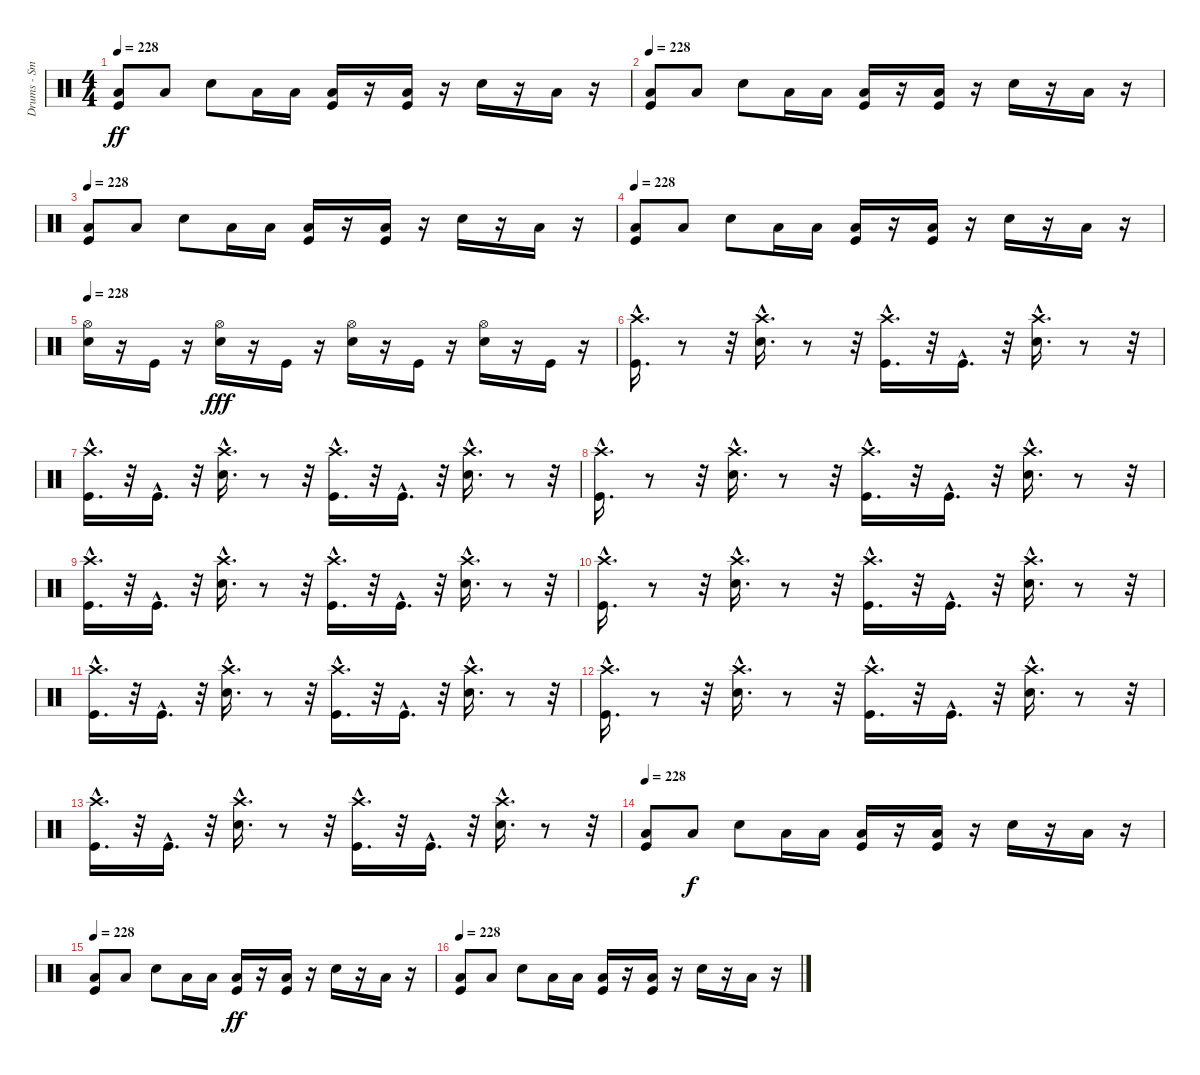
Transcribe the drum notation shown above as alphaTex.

\track ("Drums - Smelly" "Drums - Sm") {instrument percussion}
\staff {score}
\articulation defaults
\ts (4 4)
\tempo 228
\clef neutral
\ks c
("Kick (hit)" "Low Floor Tom (hit)").8{dy ff} "Low Floor Tom (hit)".8 "Electric Snare (hit)".8 "Low Tom (hit)".16 "Low Tom (hit)".16 ("Kick (hit)" "Low Floor Tom (hit)").16 r.16 ("Low Floor Tom (hit)" "Kick (hit)").16 r.16 "Electric Snare (hit)".16 r.16 "Low Tom (hit)".16 r.16 |
\tempo 228
("Low Floor Tom (hit)" "Kick (hit)").8 "Low Floor Tom (hit)".8 "Electric Snare (hit)".8 "Low Tom (hit)".16 "Low Tom (hit)".16 ("Low Floor Tom (hit)" "Kick (hit)").16 r.16 ("Kick (hit)" "Low Floor Tom (hit)").16 r.16 "Electric Snare (hit)".16 r.16 "Low Tom (hit)".16 r.16 |
\tempo 228
("Low Floor Tom (hit)" "Kick (hit)").8 "Low Floor Tom (hit)".8 "Electric Snare (hit)".8 "Low Tom (hit)".16 "Low Tom (hit)".16 ("Low Floor Tom (hit)" "Kick (hit)").16 r.16 ("Kick (hit)" "Low Floor Tom (hit)").16 r.16 "Electric Snare (hit)".16 r.16 "Low Tom (hit)".16 r.16 |
\tempo 228
("Kick (hit)" "Low Floor Tom (hit)").8 "Low Floor Tom (hit)".8 "Electric Snare (hit)".8 "Low Tom (hit)".16 "Low Tom (hit)".16 ("Low Floor Tom (hit)" "Kick (hit)").16 r.16 ("Kick (hit)" "Low Floor Tom (hit)").16 r.16 "Electric Snare (hit)".16 r.16 "Low Tom (hit)".16 r.16 |
\tempo 228
("Electric Snare (hit)" "Hi-Hat (open)").16 r.16 "Kick (hit)".16 r.16 ("Electric Snare (hit)" "Hi-Hat (open)").16{dy fff} r.16 "Kick (hit)".16 r.16 ("Electric Snare (hit)" "Hi-Hat (open)").16 r.16 "Kick (hit)".16 r.16 ("Electric Snare (hit)" "Hi-Hat (open)").16 r.16 "Kick (hit)".16 r.16 |
("Kick (hit)"{hac} "Crash high (hit)"{hac}).16{d} r.8 r.32 ("Electric Snare (hit)"{hac} "Crash high (hit)"{hac}).16{d} r.8 r.32 ("Kick (hit)"{hac} "Crash high (hit)"{hac}).16{d} r.32 "Kick (hit)"{hac}.16{d} r.32 ("Electric Snare (hit)"{hac} "Crash high (hit)"{hac}).16{d} r.8 r.32 |
("Crash high (hit)"{hac} "Kick (hit)"{hac}).16{d} r.32 "Kick (hit)"{hac}.16{d} r.32 ("Crash high (hit)"{hac} "Electric Snare (hit)"{hac}).16{d} r.8 r.32 ("Crash high (hit)"{hac} "Kick (hit)"{hac}).16{d} r.32 "Kick (hit)"{hac}.16{d} r.32 ("Crash high (hit)"{hac} "Electric Snare (hit)"{hac}).16{d} r.8 r.32 |
("Kick (hit)"{hac} "Crash high (hit)"{hac}).16{d} r.8 r.32 ("Crash high (hit)"{hac} "Electric Snare (hit)"{hac}).16{d} r.8 r.32 ("Crash high (hit)"{hac} "Kick (hit)"{hac}).16{d} r.32 "Kick (hit)"{hac}.16{d} r.32 ("Crash high (hit)"{hac} "Electric Snare (hit)"{hac}).16{d} r.8 r.32 |
("Kick (hit)"{hac} "Crash high (hit)"{hac}).16{d} r.32 "Kick (hit)"{hac}.16{d} r.32 ("Crash high (hit)"{hac} "Electric Snare (hit)"{hac}).16{d} r.8 r.32 ("Crash high (hit)"{hac} "Kick (hit)"{hac}).16{d} r.32 "Kick (hit)"{hac}.16{d} r.32 ("Crash high (hit)"{hac} "Electric Snare (hit)"{hac}).16{d} r.8 r.32 |
("Kick (hit)"{hac} "Crash high (hit)"{hac}).16{d} r.8 r.32 ("Crash high (hit)"{hac} "Electric Snare (hit)"{hac}).16{d} r.8 r.32 ("Crash high (hit)"{hac} "Kick (hit)"{hac}).16{d} r.32 "Kick (hit)"{hac}.16{d} r.32 ("Crash high (hit)"{hac} "Electric Snare (hit)"{hac}).16{d} r.8 r.32 |
("Kick (hit)"{hac} "Crash high (hit)"{hac}).16{d} r.32 "Kick (hit)"{hac}.16{d} r.32 ("Electric Snare (hit)"{hac} "Crash high (hit)"{hac}).16{d} r.8 r.32 ("Kick (hit)"{hac} "Crash high (hit)"{hac}).16{d} r.32 "Kick (hit)"{hac}.16{d} r.32 ("Crash high (hit)"{hac} "Electric Snare (hit)"{hac}).16{d} r.8 r.32 |
("Kick (hit)"{hac} "Crash high (hit)"{hac}).16{d} r.8 r.32 ("Crash high (hit)"{hac} "Electric Snare (hit)"{hac}).16{d} r.8 r.32 ("Crash high (hit)"{hac} "Kick (hit)"{hac}).16{d} r.32 "Kick (hit)"{hac}.16{d} r.32 ("Crash high (hit)"{hac} "Electric Snare (hit)"{hac}).16{d} r.8 r.32 |
("Kick (hit)"{hac} "Crash high (hit)"{hac}).16{d} r.32 "Kick (hit)"{hac}.16{d} r.32 ("Electric Snare (hit)"{hac} "Crash high (hit)"{hac}).16{d} r.8 r.32 ("Crash high (hit)"{hac} "Kick (hit)"{hac}).16{d} r.32 "Kick (hit)"{hac}.16{d} r.32 ("Crash high (hit)"{hac} "Electric Snare (hit)"{hac}).16{d} r.8 r.32 |
\tempo 228
("Kick (hit)" "Low Floor Tom (hit)").8 "Low Floor Tom (hit)".8{dy f} "Electric Snare (hit)".8 "Low Tom (hit)".16 "Low Tom (hit)".16 ("Low Floor Tom (hit)" "Kick (hit)").16 r.16 ("Kick (hit)" "Low Floor Tom (hit)").16 r.16 "Electric Snare (hit)".16 r.16 "Low Tom (hit)".16 r.16 |
\tempo 228
("Low Floor Tom (hit)" "Kick (hit)").8 "Low Floor Tom (hit)".8 "Electric Snare (hit)".8 "Low Tom (hit)".16 "Low Tom (hit)".16 ("Low Floor Tom (hit)" "Kick (hit)").16{dy ff} r.16 ("Kick (hit)" "Low Floor Tom (hit)").16 r.16 "Electric Snare (hit)".16 r.16 "Low Tom (hit)".16 r.16 |
\tempo 228
("Low Floor Tom (hit)" "Kick (hit)").8 "Low Floor Tom (hit)".8 "Electric Snare (hit)".8 "Low Tom (hit)".16 "Low Tom (hit)".16 ("Kick (hit)" "Low Floor Tom (hit)").16 r.16 ("Kick (hit)" "Low Floor Tom (hit)").16 r.16 "Electric Snare (hit)".16 r.16 "Low Tom (hit)".16 r.16
